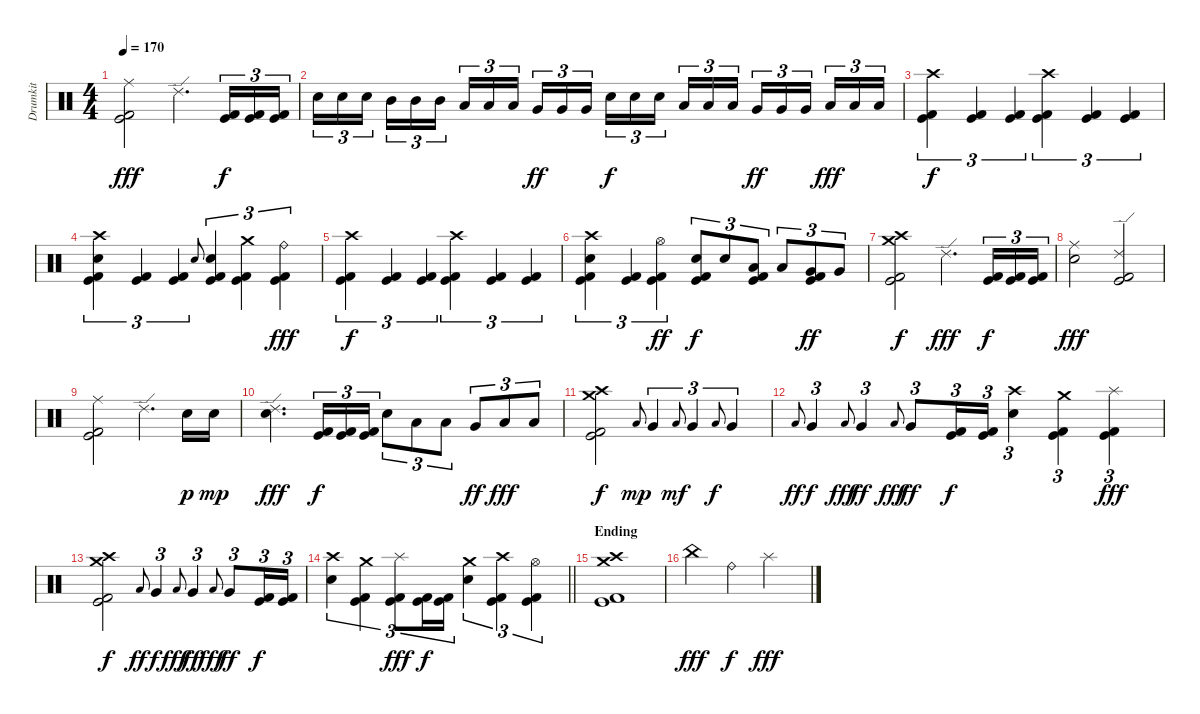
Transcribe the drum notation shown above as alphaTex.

\track ("Drumkit" "Drumkit") {instrument percussion}
\staff {score}
\articulation defaults
\ts (4 4)
\tempo 170
\clef neutral
\ks c
("Ride (middle)" "Kick (hit)" "Kick (hit) 2").2{dy fff} "Ride (edge) 2".4{d} ("Kick (hit)" "Kick (hit) 2").16{tu (3 2) dy f} ("Kick (hit)" "Kick (hit) 2").16{tu (3 2)} ("Kick (hit)" "Kick (hit) 2").16{tu (3 2)} |
"Electric Snare (hit)".16{tu (3 2)} "Electric Snare (hit)".16{tu (3 2)} "Electric Snare (hit)".16{tu (3 2) beam splitsecondary} "Mid Tom (hit)".16{tu (3 2)} "Mid Tom (hit)".16{tu (3 2)} "Mid Tom (hit)".16{tu (3 2)} "Low Tom (hit)".16{tu (3 2)} "Low Tom (hit)".16{tu (3 2)} "Low Tom (hit)".16{tu (3 2) beam splitsecondary} "Very Low Tom (hit)".16{tu (3 2) dy ff} "Very Low Tom (hit)".16{tu (3 2)} "Very Low Tom (hit)".16{tu (3 2)} "Electric Snare (hit)".16{tu (3 2) dy f} "Electric Snare (hit)".16{tu (3 2)} "Electric Snare (hit)".16{tu (3 2) beam splitsecondary} "Low Tom (hit)".16{tu (3 2)} "Low Tom (hit)".16{tu (3 2)} "Low Tom (hit)".16{tu (3 2)} "Very Low Tom (hit)".16{tu (3 2) dy ff} "Very Low Tom (hit)".16{tu (3 2)} "Very Low Tom (hit)".16{tu (3 2) beam splitsecondary} "Low Floor Tom (hit)".16{tu (3 2) dy fff} "Low Floor Tom (hit)".16{tu (3 2)} "Low Floor Tom (hit)".16{tu (3 2)} |
("Crash high (hit)" "Kick (hit)" "Kick (hit) 2").4{tu (3 2) dy f} ("Kick (hit)" "Kick (hit) 2").4{tu (3 2)} ("Kick (hit)" "Kick (hit) 2").4{tu (3 2)} ("Crash high (hit)" "Kick (hit)" "Kick (hit) 2").4{tu (3 2)} ("Kick (hit)" "Kick (hit) 2").4{tu (3 2)} ("Kick (hit)" "Kick (hit) 2").4{tu (3 2)} |
("Crash high (hit)" "Electric Snare (hit)" "Kick (hit)" "Kick (hit) 2").4{tu (3 2)} ("Kick (hit)" "Kick (hit) 2").4{tu (3 2)} ("Kick (hit)" "Kick (hit) 2").4{tu (3 2)} "Electric Snare (hit)".8{gr onbeat} ("Electric Snare (hit)" "Kick (hit)" "Kick (hit) 2").4{tu (3 2)} ("Crash medium (hit)" "Kick (hit)" "Kick (hit) 2").4{tu (3 2)} ("Ride (bell)" "Kick (hit)" "Kick (hit) 2").4{tu (3 2) dy fff} |
("Crash high (hit)" "Kick (hit)" "Kick (hit) 2").4{tu (3 2) dy f} ("Kick (hit)" "Kick (hit) 2").4{tu (3 2)} ("Kick (hit)" "Kick (hit) 2").4{tu (3 2)} ("Crash high (hit)" "Kick (hit)" "Kick (hit) 2").4{tu (3 2)} ("Kick (hit)" "Kick (hit) 2").4{tu (3 2)} ("Kick (hit)" "Kick (hit) 2").4{tu (3 2)} |
("Crash high (hit)" "Electric Snare (hit)" "Kick (hit)" "Kick (hit) 2").4{tu (3 2)} ("Kick (hit)" "Kick (hit) 2").4{tu (3 2)} ("Hi-Hat (open)" "Kick (hit)" "Kick (hit) 2").4{tu (3 2) dy ff} ("Electric Snare (hit)" "Kick (hit)" "Kick (hit) 2").8{tu (3 2) dy f} "Electric Snare (hit)".8{tu (3 2)} ("Low Tom (hit)" "Kick (hit)" "Kick (hit) 2").8{tu (3 2)} "Low Tom (hit)".8{tu (3 2)} ("Very Low Tom (hit)" "Kick (hit)" "Kick (hit) 2").8{tu (3 2) dy ff} "Very Low Tom (hit)".8{tu (3 2)} |
("Crash high (hit)" "Crash medium (hit)" "Kick (hit)" "Kick (hit) 2").2{dy f} "Ride (edge) 2".4{d dy fff} ("Kick (hit)" "Kick (hit) 2").16{tu (3 2) dy f} ("Kick (hit)" "Kick (hit) 2").16{tu (3 2)} ("Kick (hit)" "Kick (hit) 2").16{tu (3 2)} |
("Ride (middle)" "Electric Snare (hit)").2{dy fff} ("Ride (edge) 2" "Kick (hit)" "Kick (hit) 2").2 |
("Ride (middle)" "Kick (hit)" "Kick (hit) 2").2 "Ride (edge) 2".4{d} "Electric Snare (hit)".16{dy p} "Electric Snare (hit)".16{dy mp} |
("Ride (edge) 2" "Electric Snare (hit)").4{d dy fff} ("Kick (hit)" "Kick (hit) 2").16{tu (3 2) dy f} ("Kick (hit)" "Kick (hit) 2").16{tu (3 2)} ("Kick (hit)" "Kick (hit) 2").16{tu (3 2)} "Electric Snare (hit)".8{tu (3 2)} "Low Tom (hit)".8{tu (3 2)} "Low Tom (hit)".8{tu (3 2)} "Very Low Tom (hit)".8{tu (3 2) dy ff} "Low Floor Tom (hit)".8{tu (3 2) dy fff} "Low Floor Tom (hit)".8{tu (3 2)} |
("Crash high (hit)" "Crash medium (hit)" "Kick (hit)" "Kick (hit) 2").2{dy f} "Low Floor Tom (hit)".8{gr onbeat dy mp} "Very Low Tom (hit)".4{tu (3 2)} "Low Floor Tom (hit)".8{gr onbeat dy mf} "Very Low Tom (hit)".4{tu (3 2)} "Low Floor Tom (hit)".8{gr onbeat dy f} "Very Low Tom (hit)".4{tu (3 2)} |
"Low Floor Tom (hit)".8{gr onbeat dy ff} "Very Low Tom (hit)".4{tu (3 2) dy f} "Low Floor Tom (hit)".8{gr onbeat dy fff} "Very Low Tom (hit)".4{tu (3 2) dy ff} "Low Floor Tom (hit)".8{gr onbeat dy fff} "Very Low Tom (hit)".8{tu (3 2) dy ff} ("Kick (hit)" "Kick (hit) 2").16{tu (3 2) dy f} ("Kick (hit)" "Kick (hit) 2").16{tu (3 2)} ("Crash high (hit)" "Electric Snare (hit)").4{tu (3 2)} ("Crash medium (hit)" "Kick (hit)" "Kick (hit) 2").4{tu (3 2)} ("Splash (hit)" "Kick (hit)" "Kick (hit) 2").4{tu (3 2) dy fff} |
("Crash high (hit)" "Crash medium (hit)" "Kick (hit)" "Kick (hit) 2").2{dy f} "Low Floor Tom (hit)".8{gr onbeat dy ff} "Very Low Tom (hit)".4{tu (3 2) dy f} "Low Floor Tom (hit)".8{gr onbeat dy fff} "Very Low Tom (hit)".4{tu (3 2) dy ff} "Low Floor Tom (hit)".8{gr onbeat dy fff} "Very Low Tom (hit)".8{tu (3 2) dy ff} ("Kick (hit)" "Kick (hit) 2").16{tu (3 2) dy f} ("Kick (hit)" "Kick (hit) 2").16{tu (3 2)} |
\barLineRight lightlight
("Crash high (hit)" "Electric Snare (hit)").4{tu (3 2)} ("Crash medium (hit)" "Kick (hit)" "Kick (hit) 2").4{tu (3 2)} ("Splash (hit)" "Kick (hit)" "Kick (hit) 2").8{tu (3 2) dy fff} ("Kick (hit)" "Kick (hit) 2").16{tu (3 2) dy f} ("Kick (hit)" "Kick (hit) 2").16{tu (3 2)} ("Crash medium (hit)" "Electric Snare (hit)").4{tu (3 2)} ("Crash high (hit)" "Kick (hit)" "Kick (hit) 2").4{tu (3 2)} ("Hi-Hat (open)" "Kick (hit)" "Kick (hit) 2").4{tu (3 2)} |
\section ("" "Ending")
("Crash high (hit)" "Crash medium (hit)" "Kick (hit)" "Kick (hit) 2").1 |
"China (hit)".4{dy fff} "Ride (bell)".4{dy f} "Splash (hit)".2{dy fff}
